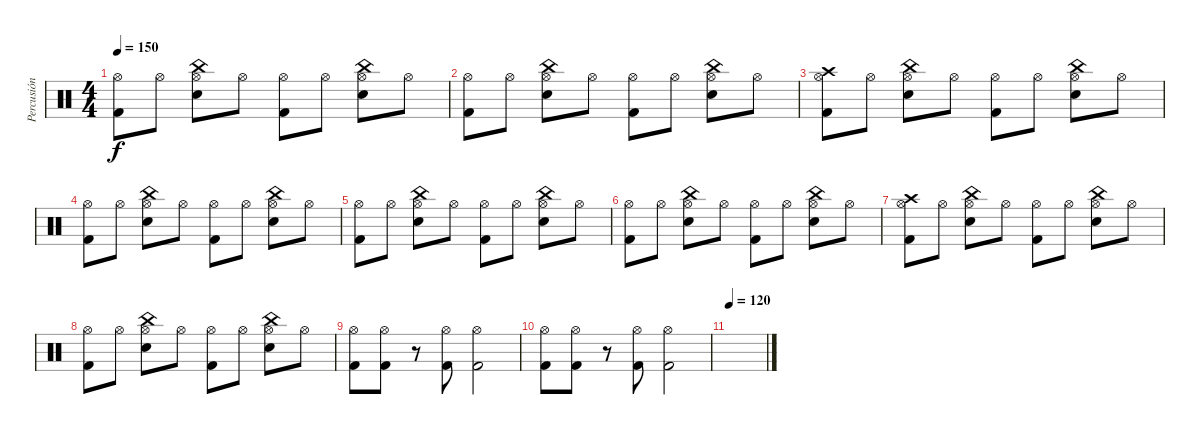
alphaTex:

\track ("Percusión (Raymundo Fajardo)" "Percusión ") {instrument percussion}
\staff {score}
\articulation defaults
\ts (4 4)
\tempo 150
\clef neutral
\ks c
("Hi-Hat (open)" "Kick (hit) 2").8{dy f} "Hi-Hat (open)".8 ("Hi-Hat (open)" "Snare (hit) 2" "China (hit)").8 "Hi-Hat (open)".8 ("Hi-Hat (open)" "Kick (hit) 2").8 "Hi-Hat (open)".8 ("Hi-Hat (open)" "Snare (hit) 2" "China (hit)").8 "Hi-Hat (open)".8 |
("Hi-Hat (open)" "Kick (hit) 2").8 "Hi-Hat (open)".8 ("Hi-Hat (open)" "Snare (hit) 2" "China (hit)").8 "Hi-Hat (open)".8 ("Hi-Hat (open)" "Kick (hit) 2").8 "Hi-Hat (open)".8 ("Hi-Hat (open)" "Snare (hit) 2" "China (hit)").8 "Hi-Hat (open)".8 |
("Hi-Hat (open)" "Crash high (hit)" "Kick (hit) 2").8 "Hi-Hat (open)".8 ("Hi-Hat (open)" "Snare (hit) 2" "China (hit)").8 "Hi-Hat (open)".8 ("Hi-Hat (open)" "Kick (hit) 2").8 "Hi-Hat (open)".8 ("Hi-Hat (open)" "Snare (hit) 2" "China (hit)").8 "Hi-Hat (open)".8 |
("Hi-Hat (open)" "Kick (hit) 2").8 "Hi-Hat (open)".8 ("Hi-Hat (open)" "Snare (hit) 2" "China (hit)").8 "Hi-Hat (open)".8 ("Hi-Hat (open)" "Kick (hit) 2").8 "Hi-Hat (open)".8 ("Hi-Hat (open)" "Snare (hit) 2" "China (hit)").8 "Hi-Hat (open)".8 |
("Hi-Hat (open)" "Kick (hit) 2").8 "Hi-Hat (open)".8 ("Hi-Hat (open)" "Snare (hit) 2" "China (hit)").8 "Hi-Hat (open)".8 ("Hi-Hat (open)" "Kick (hit) 2").8 "Hi-Hat (open)".8 ("Hi-Hat (open)" "Snare (hit) 2" "China (hit)").8 "Hi-Hat (open)".8 |
("Hi-Hat (open)" "Kick (hit) 2").8 "Hi-Hat (open)".8 ("Hi-Hat (open)" "Snare (hit) 2" "China (hit)").8 "Hi-Hat (open)".8 ("Hi-Hat (open)" "Kick (hit) 2").8 "Hi-Hat (open)".8 ("Hi-Hat (open)" "Snare (hit) 2" "China (hit)").8 "Hi-Hat (open)".8 |
("Hi-Hat (open)" "Crash high (hit)" "Kick (hit) 2").8 "Hi-Hat (open)".8 ("Hi-Hat (open)" "Snare (hit) 2" "China (hit)").8 "Hi-Hat (open)".8 ("Hi-Hat (open)" "Kick (hit) 2").8 "Hi-Hat (open)".8 ("Hi-Hat (open)" "Snare (hit) 2" "China (hit)").8 "Hi-Hat (open)".8 |
("Hi-Hat (open)" "Kick (hit) 2").8 "Hi-Hat (open)".8 ("Hi-Hat (open)" "Snare (hit) 2" "China (hit)").8 "Hi-Hat (open)".8 ("Hi-Hat (open)" "Kick (hit) 2").8 "Hi-Hat (open)".8 ("Hi-Hat (open)" "Snare (hit) 2" "China (hit)").8 "Hi-Hat (open)".8 |
("Kick (hit) 2" "Hi-Hat (open)").8 ("Kick (hit) 2" "Hi-Hat (open)").8 r.8 ("Kick (hit) 2" "Hi-Hat (open)").8 ("Kick (hit) 2" "Hi-Hat (open)").2 |
("Kick (hit) 2" "Hi-Hat (open)").8 ("Kick (hit) 2" "Hi-Hat (open)").8 r.8 ("Kick (hit) 2" "Hi-Hat (open)").8 ("Kick (hit) 2" "Hi-Hat (open)").2 |
\tempo 120
